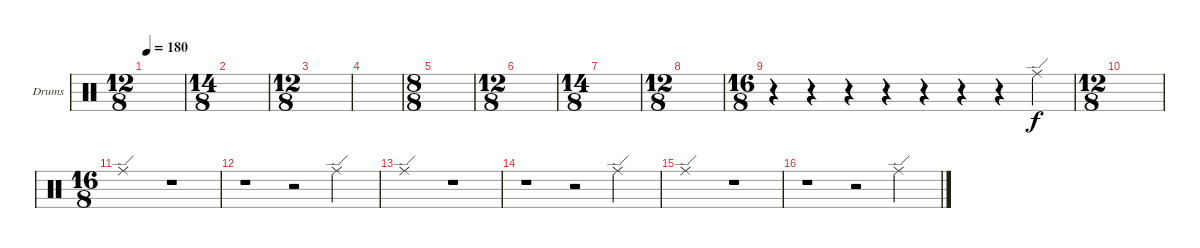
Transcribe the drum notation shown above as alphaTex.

\defaultSystemsLayout 4
\bracketExtendMode groupsimilarinstruments
\firstSystemTrackNameOrientation horizontal
\otherSystemsTrackNameOrientation horizontal
\track ("Ride" "Drums") {instrument percussion}
\staff {score}
\articulation defaults
\ts (12 8)
\tempo 180
\clef neutral
\ks c
|
\ts (14 8)
|
\ts (12 8)
|
|
\ts (8 8)
|
\ts (12 8)
|
\ts (14 8)
|
\ts (12 8)
|
\ts (16 8)
r.4 r.4 r.4 r.4 r.4 r.4 r.4 "Ride (edge)".4 |
\ts (12 8)
|
\ts (16 8)
"Ride (edge)".1 r.1 |
r.1 r.2 "Ride (edge)".2 |
"Ride (edge)".1 r.1 |
r.1 r.2 "Ride (edge)".2 |
"Ride (edge)".1 r.1 |
r.1 r.2 "Ride (edge)".2
